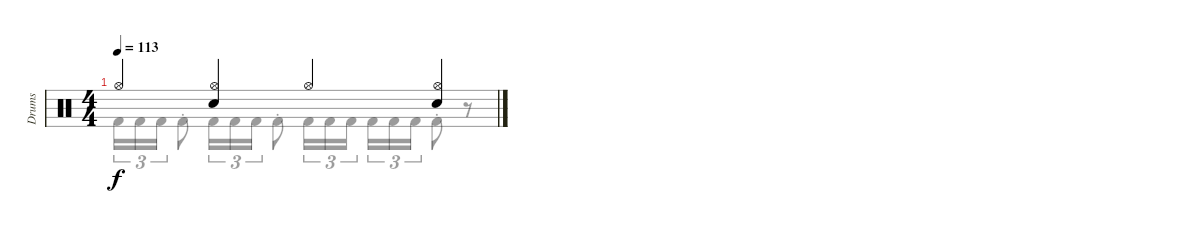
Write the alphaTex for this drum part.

\track ("Drums" "Drums") {instrument percussion}
\staff {score}
\articulation defaults
\voice
\ts (4 4)
\tempo 113
\clef neutral
\ks c "Hi-Hat (open)".4{dy f}
("Hi-Hat (open)" "Snare (hit) 2").4 "Hi-Hat (open)".4 ("Hi-Hat (open)" "Snare (hit) 2").4
\voice
\clef neutral
\ottava regular
\simile none
\ks c "Kick (hit) 2".16{tu (3 2) dy f} "Kick (hit) 2".16{tu (3 2)} "Kick (hit) 2".16{tu (3 2)} "Kick (hit) 2"{st}.8 "Kick (hit) 2".16{tu (3 2)} "Kick (hit) 2".16{tu (3 2)} "Kick (hit) 2".16{tu (3 2)} "Kick (hit) 2"{st}.8 "Kick (hit) 2".16{tu (3 2)} "Kick (hit) 2".16{tu (3 2)} "Kick (hit) 2".16{tu (3 2) beam splitsecondary} "Kick (hit) 2".16{tu (3 2)} "Kick (hit) 2".16{tu (3 2)} "Kick (hit) 2".16{tu (3 2)} "Kick (hit) 2"{st}.8
r.8
